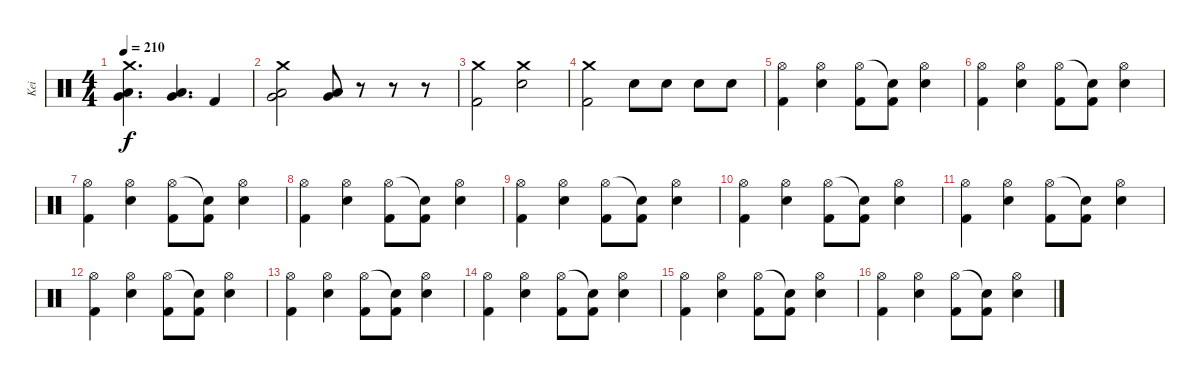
\track ("Kei" "Kei") {instrument percussion}
\staff {score}
\articulation defaults
\ts (4 4)
\tempo 210
\clef neutral
\ks c
("Crash medium (hit)" "Low Floor Tom (hit)" "Very Low Tom (hit)").4{d dy f} ("Low Floor Tom (hit)" "Very Low Tom (hit)").4{d} "Kick (hit) 2".4 |
("Crash medium (hit)" "Low Floor Tom (hit)" "Very Low Tom (hit)").2 ("Low Floor Tom (hit)" "Very Low Tom (hit)").8 r.8 r.8 r.8 |
("Crash medium (hit)" "Kick (hit) 2").2 ("Crash medium (hit)" "Electric Snare (hit)").2 |
("Crash medium (hit)" "Kick (hit) 2").2 "Electric Snare (hit)".8 "Electric Snare (hit)".8 "Electric Snare (hit)".8 "Electric Snare (hit)".8 |
("Hi-Hat (open)" "Kick (hit) 2").4 ("Hi-Hat (open)" "Electric Snare (hit)").4 ("Hi-Hat (open)" "Kick (hit) 2").8 ("Snare (hit)"{t} "Kick (hit) 2").8 ("Hi-Hat (open)" "Electric Snare (hit)").4 |
("Hi-Hat (open)" "Kick (hit) 2").4 ("Hi-Hat (open)" "Electric Snare (hit)").4 ("Hi-Hat (open)" "Kick (hit) 2").8 ("Snare (hit)"{t} "Kick (hit) 2").8 ("Hi-Hat (open)" "Electric Snare (hit)").4 |
("Hi-Hat (open)" "Kick (hit) 2").4 ("Hi-Hat (open)" "Electric Snare (hit)").4 ("Hi-Hat (open)" "Kick (hit) 2").8 ("Snare (hit)"{t} "Kick (hit) 2").8 ("Hi-Hat (open)" "Electric Snare (hit)").4 |
("Hi-Hat (open)" "Kick (hit) 2").4 ("Hi-Hat (open)" "Electric Snare (hit)").4 ("Hi-Hat (open)" "Kick (hit) 2").8 ("Snare (hit)"{t} "Kick (hit) 2").8 ("Hi-Hat (open)" "Electric Snare (hit)").4 |
("Hi-Hat (open)" "Kick (hit) 2").4 ("Hi-Hat (open)" "Electric Snare (hit)").4 ("Hi-Hat (open)" "Kick (hit) 2").8 ("Snare (hit)"{t} "Kick (hit) 2").8 ("Hi-Hat (open)" "Electric Snare (hit)").4 |
("Hi-Hat (open)" "Kick (hit) 2").4 ("Hi-Hat (open)" "Electric Snare (hit)").4 ("Hi-Hat (open)" "Kick (hit) 2").8 ("Snare (hit)"{t} "Kick (hit) 2").8 ("Hi-Hat (open)" "Electric Snare (hit)").4 |
("Hi-Hat (open)" "Kick (hit) 2").4 ("Hi-Hat (open)" "Electric Snare (hit)").4 ("Hi-Hat (open)" "Kick (hit) 2").8 ("Snare (hit)"{t} "Kick (hit) 2").8 ("Hi-Hat (open)" "Electric Snare (hit)").4 |
("Hi-Hat (open)" "Kick (hit) 2").4 ("Hi-Hat (open)" "Electric Snare (hit)").4 ("Hi-Hat (open)" "Kick (hit) 2").8 ("Snare (hit)"{t} "Kick (hit) 2").8 ("Hi-Hat (open)" "Electric Snare (hit)").4 |
("Hi-Hat (open)" "Kick (hit) 2").4 ("Hi-Hat (open)" "Electric Snare (hit)").4 ("Hi-Hat (open)" "Kick (hit) 2").8 ("Snare (hit)"{t} "Kick (hit) 2").8 ("Hi-Hat (open)" "Electric Snare (hit)").4 |
("Hi-Hat (open)" "Kick (hit) 2").4 ("Hi-Hat (open)" "Electric Snare (hit)").4 ("Hi-Hat (open)" "Kick (hit) 2").8 ("Snare (hit)"{t} "Kick (hit) 2").8 ("Hi-Hat (open)" "Electric Snare (hit)").4 |
("Hi-Hat (open)" "Kick (hit) 2").4 ("Hi-Hat (open)" "Electric Snare (hit)").4 ("Hi-Hat (open)" "Kick (hit) 2").8 ("Snare (hit)"{t} "Kick (hit) 2").8 ("Hi-Hat (open)" "Electric Snare (hit)").4 |
("Hi-Hat (open)" "Kick (hit) 2").4 ("Hi-Hat (open)" "Electric Snare (hit)").4 ("Hi-Hat (open)" "Kick (hit) 2").8 ("Snare (hit)"{t} "Kick (hit) 2").8 ("Hi-Hat (open)" "Electric Snare (hit)").4
